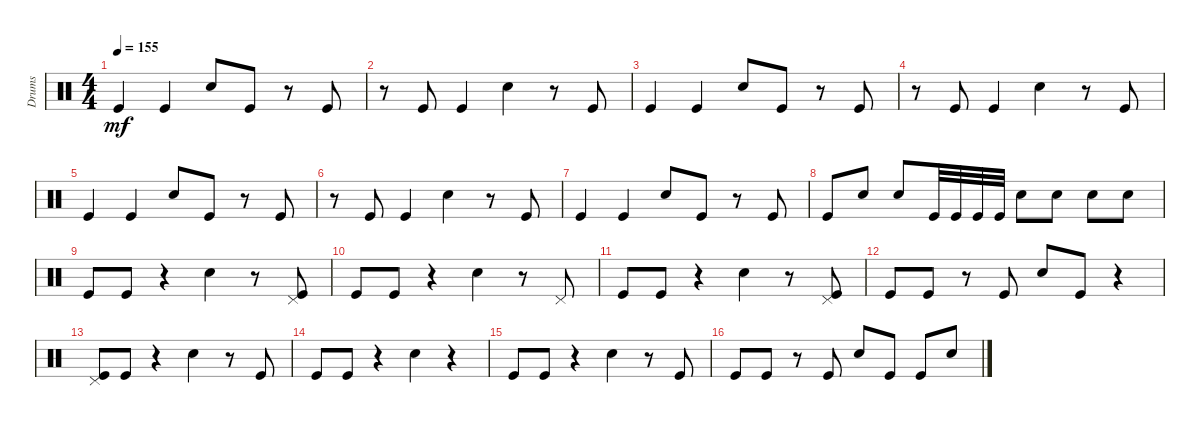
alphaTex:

\track ("Drums" "Drums") {instrument percussion}
\staff {score}
\articulation defaults
\ts (4 4)
\tempo 155
\clef neutral
\ks c "Kick (hit)".4{dy mf} "Kick (hit)".4 "Snare (hit) 2".8 "Kick (hit)".8
r.8 "Kick (hit)".8 |
r.8 "Kick (hit)".8 "Kick (hit)".4 "Snare (hit) 2".4 r.8 "Kick (hit)".8 |
"Kick (hit)".4 "Kick (hit)".4 "Snare (hit) 2".8 "Kick (hit)".8 r.8 "Kick (hit)".8 |
r.8 "Kick (hit)".8 "Kick (hit)".4 "Snare (hit) 2".4 r.8 "Kick (hit)".8 |
"Kick (hit)".4 "Kick (hit)".4 "Snare (hit) 2".8 "Kick (hit)".8 r.8 "Kick (hit)".8 |
r.8 "Kick (hit)".8 "Kick (hit)".4 "Snare (hit) 2".4 r.8 "Kick (hit)".8 |
"Kick (hit)".4 "Kick (hit)".4 "Snare (hit) 2".8 "Kick (hit)".8 r.8 "Kick (hit)".8 |
"Kick (hit)".8 "Snare (hit) 2".8 "Snare (hit) 2".8 "Kick (hit)".32 "Kick (hit)".32 "Kick (hit)".32 "Kick (hit)".32 "Snare (hit) 2".8 "Snare (hit) 2".8 "Snare (hit) 2".8 "Snare (hit) 2".8 |
"Kick (hit)".8 "Kick (hit)".8 r.4 "Snare (hit) 2".4 r.8 ("Kick (hit)" "Pedal Hi-Hat (hit)").8 |
"Kick (hit)".8 "Kick (hit)".8 r.4 "Snare (hit) 2".4 r.8 "Pedal Hi-Hat (hit)".8 |
"Kick (hit)".8 "Kick (hit)".8 r.4 "Snare (hit) 2".4 r.8 ("Kick (hit)" "Pedal Hi-Hat (hit)").8 |
"Kick (hit)".8 "Kick (hit)".8 r.8 "Kick (hit)".8 "Snare (hit) 2".8 "Kick (hit)".8 r.4 |
("Kick (hit)" "Pedal Hi-Hat (hit)").8 "Kick (hit)".8 r.4 "Snare (hit) 2".4 r.8 "Kick (hit)".8 |
"Kick (hit)".8 "Kick (hit)".8 r.4 "Snare (hit) 2".4 r.4 |
"Kick (hit)".8 "Kick (hit)".8 r.4 "Snare (hit) 2".4 r.8 "Kick (hit)".8 |
"Kick (hit)".8 "Kick (hit)".8 r.8 "Kick (hit)".8 "Snare (hit) 2".8 "Kick (hit)".8 "Kick (hit)".8 "Snare (hit) 2".8
